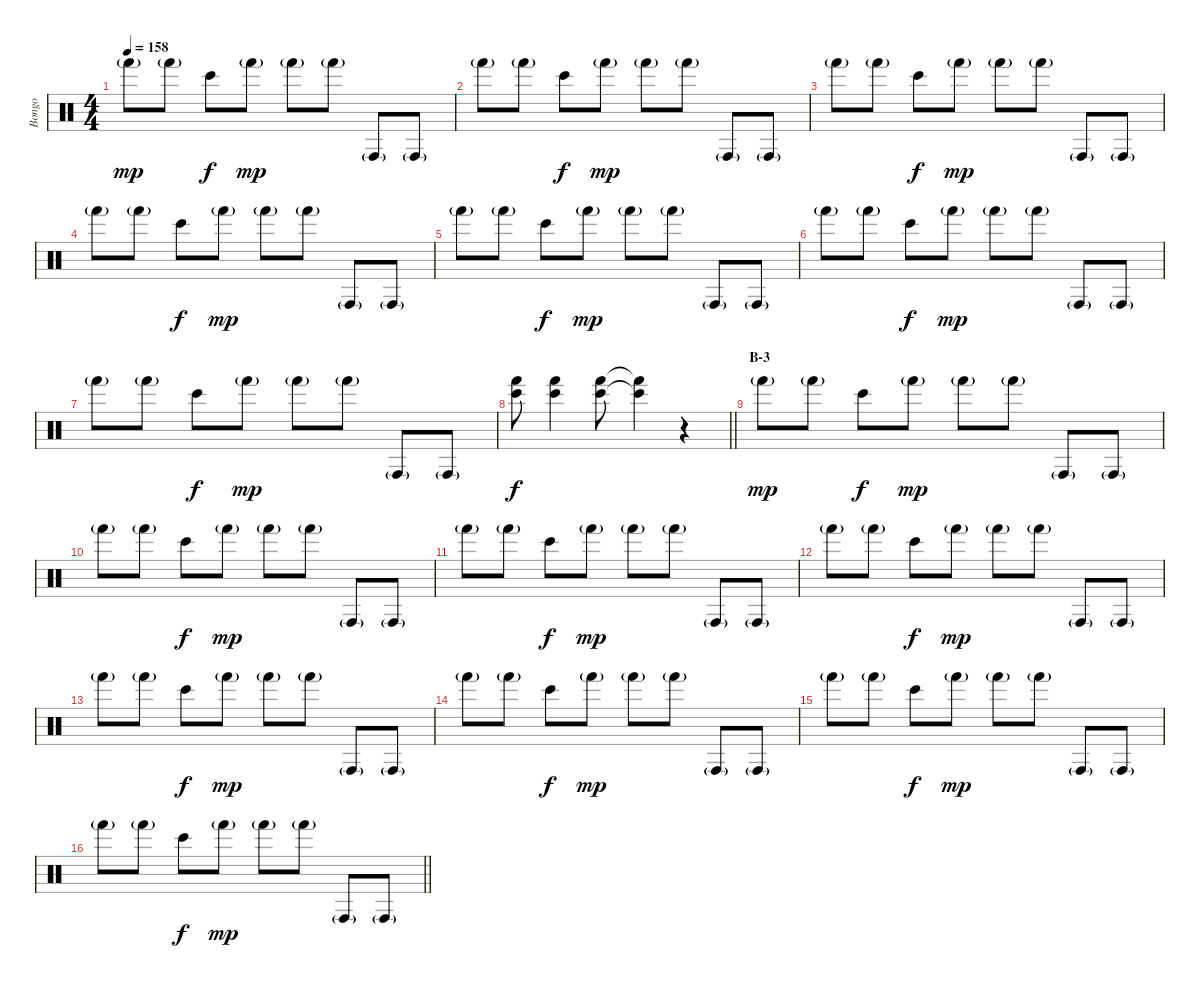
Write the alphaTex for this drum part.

\track ("Bongo" "Bongo") {instrument percussion}
\staff {score}
\articulation defaults
\ts (4 4)
\tempo 158
\clef neutral
\ks c "Hand (hit)"{g}.8{dy mp} "Hand (hit)"{g}.8 "Bongo High (hit)".8{dy f} "Hand (hit)"{g}.8{dy mp} "Hand (hit)"{g}.8 "Hand (hit)"{g}.8 "Conga high (hit)"{g}.8 "Conga high (hit)"{g}.8
|
"Hand (hit)"{g}.8 "Hand (hit)"{g}.8 "Bongo High (hit)".8{dy f} "Hand (hit)"{g}.8{dy mp} "Hand (hit)"{g}.8 "Hand (hit)"{g}.8 "Conga high (hit)"{g}.8 "Conga high (hit)"{g}.8 |
"Hand (hit)"{g}.8 "Hand (hit)"{g}.8 "Bongo High (hit)".8{dy f} "Hand (hit)"{g}.8{dy mp} "Hand (hit)"{g}.8 "Hand (hit)"{g}.8 "Conga high (hit)"{g}.8 "Conga high (hit)"{g}.8 |
"Hand (hit)"{g}.8 "Hand (hit)"{g}.8 "Bongo High (hit)".8{dy f} "Hand (hit)"{g}.8{dy mp} "Hand (hit)"{g}.8 "Hand (hit)"{g}.8 "Conga high (hit)"{g}.8 "Conga high (hit)"{g}.8 |
"Hand (hit)"{g}.8 "Hand (hit)"{g}.8 "Bongo High (hit)".8{dy f} "Hand (hit)"{g}.8{dy mp} "Hand (hit)"{g}.8 "Hand (hit)"{g}.8 "Conga high (hit)"{g}.8 "Conga high (hit)"{g}.8 |
"Hand (hit)"{g}.8 "Hand (hit)"{g}.8 "Bongo High (hit)".8{dy f} "Hand (hit)"{g}.8{dy mp} "Hand (hit)"{g}.8 "Hand (hit)"{g}.8 "Conga high (hit)"{g}.8 "Conga high (hit)"{g}.8 |
"Hand (hit)"{g}.8 "Hand (hit)"{g}.8 "Bongo High (hit)".8{dy f} "Hand (hit)"{g}.8{dy mp} "Hand (hit)"{g}.8 "Hand (hit)"{g}.8 "Conga high (hit)"{g}.8 "Conga high (hit)"{g}.8 |
\barLineRight lightlight
("Bongo High (hit)" "Hand (hit)").8{dy f} ("Bongo High (hit)" "Hand (hit)").4 ("Bongo High (hit)" "Hand (hit)").8 ("Bongo High (hit)"{t} "Hand (hit)"{t}).4 r.4 |
\section ("" "B-3")
"Hand (hit)"{g}.8{dy mp} "Hand (hit)"{g}.8 "Bongo High (hit)".8{dy f} "Hand (hit)"{g}.8{dy mp} "Hand (hit)"{g}.8 "Hand (hit)"{g}.8 "Conga high (hit)"{g}.8 "Conga high (hit)"{g}.8 |
"Hand (hit)"{g}.8 "Hand (hit)"{g}.8 "Bongo High (hit)".8{dy f} "Hand (hit)"{g}.8{dy mp} "Hand (hit)"{g}.8 "Hand (hit)"{g}.8 "Conga high (hit)"{g}.8 "Conga high (hit)"{g}.8 |
"Hand (hit)"{g}.8 "Hand (hit)"{g}.8 "Bongo High (hit)".8{dy f} "Hand (hit)"{g}.8{dy mp} "Hand (hit)"{g}.8 "Hand (hit)"{g}.8 "Conga high (hit)"{g}.8 "Conga high (hit)"{g}.8 |
"Hand (hit)"{g}.8 "Hand (hit)"{g}.8 "Bongo High (hit)".8{dy f} "Hand (hit)"{g}.8{dy mp} "Hand (hit)"{g}.8 "Hand (hit)"{g}.8 "Conga high (hit)"{g}.8 "Conga high (hit)"{g}.8 |
"Hand (hit)"{g}.8 "Hand (hit)"{g}.8 "Bongo High (hit)".8{dy f} "Hand (hit)"{g}.8{dy mp} "Hand (hit)"{g}.8 "Hand (hit)"{g}.8 "Conga high (hit)"{g}.8 "Conga high (hit)"{g}.8 |
"Hand (hit)"{g}.8 "Hand (hit)"{g}.8 "Bongo High (hit)".8{dy f} "Hand (hit)"{g}.8{dy mp} "Hand (hit)"{g}.8 "Hand (hit)"{g}.8 "Conga high (hit)"{g}.8 "Conga high (hit)"{g}.8 |
"Hand (hit)"{g}.8 "Hand (hit)"{g}.8 "Bongo High (hit)".8{dy f} "Hand (hit)"{g}.8{dy mp} "Hand (hit)"{g}.8 "Hand (hit)"{g}.8 "Conga high (hit)"{g}.8 "Conga high (hit)"{g}.8 |
\barLineRight lightlight "Hand (hit)"{g}.8 "Hand (hit)"{g}.8 "Bongo High (hit)".8{dy f} "Hand (hit)"{g}.8{dy mp} "Hand (hit)"{g}.8 "Hand (hit)"{g}.8 "Conga high (hit)"{g}.8 "Conga high (hit)"{g}.8
